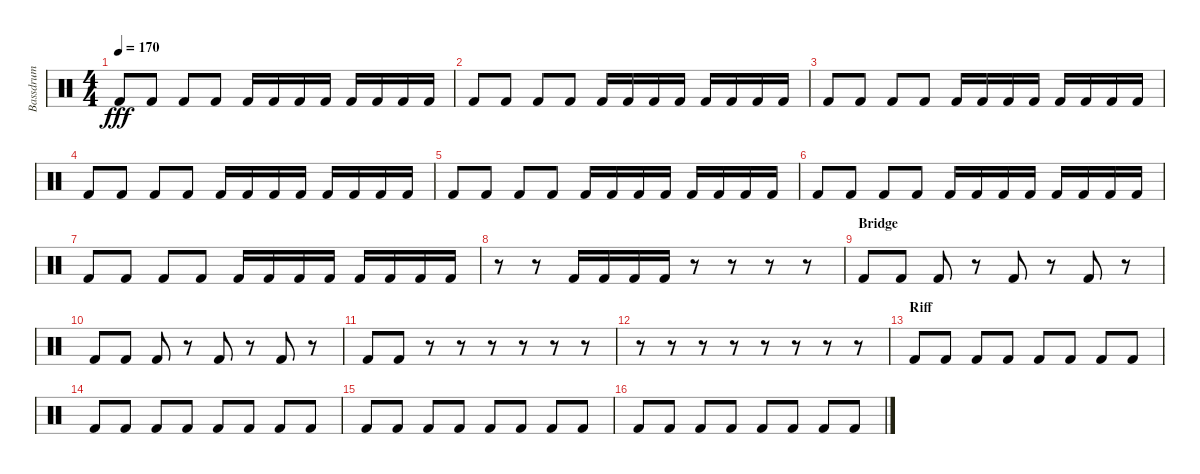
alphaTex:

\track ("Bassdrum" "Bassdrum") {instrument percussion}
\staff {score}
\articulation defaults
\ts (4 4)
\tempo 170
\clef neutral
\ks c "Kick (hit) 2".8{dy fff} "Kick (hit) 2".8 "Kick (hit) 2".8 "Kick (hit) 2".8 "Kick (hit) 2".16 "Kick (hit) 2".16 "Kick (hit) 2".16 "Kick (hit) 2".16 "Kick (hit) 2".16 "Kick (hit) 2".16 "Kick (hit) 2".16 "Kick (hit) 2".16
|
"Kick (hit) 2".8 "Kick (hit) 2".8 "Kick (hit) 2".8 "Kick (hit) 2".8 "Kick (hit) 2".16 "Kick (hit) 2".16 "Kick (hit) 2".16 "Kick (hit) 2".16 "Kick (hit) 2".16 "Kick (hit) 2".16 "Kick (hit) 2".16 "Kick (hit) 2".16 |
"Kick (hit) 2".8 "Kick (hit) 2".8 "Kick (hit) 2".8 "Kick (hit) 2".8 "Kick (hit) 2".16 "Kick (hit) 2".16 "Kick (hit) 2".16 "Kick (hit) 2".16 "Kick (hit) 2".16 "Kick (hit) 2".16 "Kick (hit) 2".16 "Kick (hit) 2".16 |
"Kick (hit) 2".8 "Kick (hit) 2".8 "Kick (hit) 2".8 "Kick (hit) 2".8 "Kick (hit) 2".16 "Kick (hit) 2".16 "Kick (hit) 2".16 "Kick (hit) 2".16 "Kick (hit) 2".16 "Kick (hit) 2".16 "Kick (hit) 2".16 "Kick (hit) 2".16 |
"Kick (hit) 2".8 "Kick (hit) 2".8 "Kick (hit) 2".8 "Kick (hit) 2".8 "Kick (hit) 2".16 "Kick (hit) 2".16 "Kick (hit) 2".16 "Kick (hit) 2".16 "Kick (hit) 2".16 "Kick (hit) 2".16 "Kick (hit) 2".16 "Kick (hit) 2".16 |
"Kick (hit) 2".8 "Kick (hit) 2".8 "Kick (hit) 2".8 "Kick (hit) 2".8 "Kick (hit) 2".16 "Kick (hit) 2".16 "Kick (hit) 2".16 "Kick (hit) 2".16 "Kick (hit) 2".16 "Kick (hit) 2".16 "Kick (hit) 2".16 "Kick (hit) 2".16 |
"Kick (hit) 2".8 "Kick (hit) 2".8 "Kick (hit) 2".8 "Kick (hit) 2".8 "Kick (hit) 2".16 "Kick (hit) 2".16 "Kick (hit) 2".16 "Kick (hit) 2".16 "Kick (hit) 2".16 "Kick (hit) 2".16 "Kick (hit) 2".16 "Kick (hit) 2".16 |
r.8 r.8 "Kick (hit) 2".16 "Kick (hit) 2".16 "Kick (hit) 2".16 "Kick (hit) 2".16 r.8 r.8 r.8 r.8 |
\section ("" "Bridge")
"Kick (hit) 2".8 "Kick (hit) 2".8 "Kick (hit) 2".8 r.8 "Kick (hit) 2".8 r.8 "Kick (hit) 2".8 r.8 |
"Kick (hit) 2".8 "Kick (hit) 2".8 "Kick (hit) 2".8 r.8 "Kick (hit) 2".8 r.8 "Kick (hit) 2".8 r.8 |
"Kick (hit) 2".8 "Kick (hit) 2".8 r.8 r.8 r.8 r.8 r.8 r.8 |
r.8 r.8 r.8 r.8 r.8 r.8 r.8 r.8 |
\section ("" "Riff")
"Kick (hit) 2".8 "Kick (hit) 2".8 "Kick (hit) 2".8 "Kick (hit) 2".8 "Kick (hit) 2".8 "Kick (hit) 2".8 "Kick (hit) 2".8 "Kick (hit) 2".8 |
"Kick (hit) 2".8 "Kick (hit) 2".8 "Kick (hit) 2".8 "Kick (hit) 2".8 "Kick (hit) 2".8 "Kick (hit) 2".8 "Kick (hit) 2".8 "Kick (hit) 2".8 |
"Kick (hit) 2".8 "Kick (hit) 2".8 "Kick (hit) 2".8 "Kick (hit) 2".8 "Kick (hit) 2".8 "Kick (hit) 2".8 "Kick (hit) 2".8 "Kick (hit) 2".8 |
"Kick (hit) 2".8 "Kick (hit) 2".8 "Kick (hit) 2".8 "Kick (hit) 2".8 "Kick (hit) 2".8 "Kick (hit) 2".8 "Kick (hit) 2".8 "Kick (hit) 2".8
